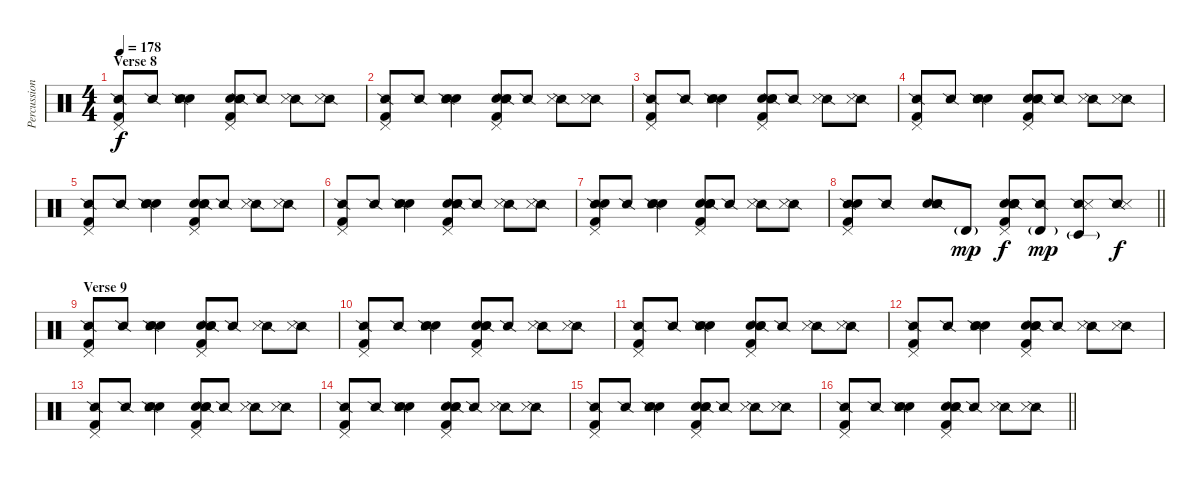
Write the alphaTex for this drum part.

\track ("Percussion" "Percussion") {instrument percussion}
\staff {score}
\articulation defaults
\ts (4 4)
\section ("" "Verse 8")
\tempo 178
\clef neutral
\ks c
("Pedal Hi-Hat (hit)" "Kick (hit) 2" "Snare (side stick) 2").8{dy f} "Snare (side stick) 2".8 ("Hand Clap (hit)" "Hand Clap (hit)" "Snare (side stick) 2" "Metronome (hit)").4 ("Pedal Hi-Hat (hit)" "Hand Clap (hit)" "Hand Clap (hit)" "Kick (hit) 2" "Snare (side stick) 2").8 "Snare (side stick) 2".8 ("Snare (side stick) 2" "Metronome (hit)").8 ("Snare (side stick) 2" "Metronome (hit)").8 |
("Pedal Hi-Hat (hit)" "Kick (hit) 2" "Snare (side stick) 2").8 "Snare (side stick) 2".8 ("Hand Clap (hit)" "Hand Clap (hit)" "Snare (side stick) 2" "Metronome (hit)").4 ("Pedal Hi-Hat (hit)" "Hand Clap (hit)" "Hand Clap (hit)" "Kick (hit) 2" "Snare (side stick) 2").8 "Snare (side stick) 2".8 ("Snare (side stick) 2" "Metronome (hit)").8 ("Snare (side stick) 2" "Metronome (hit)").8 |
("Pedal Hi-Hat (hit)" "Kick (hit) 2" "Snare (side stick) 2").8 "Snare (side stick) 2".8 ("Hand Clap (hit)" "Hand Clap (hit)" "Snare (side stick) 2" "Metronome (hit)").4 ("Pedal Hi-Hat (hit)" "Hand Clap (hit)" "Hand Clap (hit)" "Kick (hit) 2" "Snare (side stick) 2").8 "Snare (side stick) 2".8 ("Snare (side stick) 2" "Metronome (hit)").8 ("Snare (side stick) 2" "Metronome (hit)").8 |
("Pedal Hi-Hat (hit)" "Kick (hit) 2" "Snare (side stick) 2").8 "Snare (side stick) 2".8 ("Hand Clap (hit)" "Hand Clap (hit)" "Snare (side stick) 2" "Metronome (hit)").4 ("Pedal Hi-Hat (hit)" "Hand Clap (hit)" "Hand Clap (hit)" "Kick (hit) 2" "Snare (side stick) 2").8 "Snare (side stick) 2".8 ("Snare (side stick) 2" "Metronome (hit)").8 ("Snare (side stick) 2" "Metronome (hit)").8 |
("Pedal Hi-Hat (hit)" "Kick (hit) 2" "Snare (side stick) 2").8 "Snare (side stick) 2".8 ("Hand Clap (hit)" "Hand Clap (hit)" "Snare (side stick) 2" "Metronome (hit)").4 ("Pedal Hi-Hat (hit)" "Hand Clap (hit)" "Hand Clap (hit)" "Kick (hit) 2" "Snare (side stick) 2").8 "Snare (side stick) 2".8 ("Snare (side stick) 2" "Metronome (hit)").8 ("Snare (side stick) 2" "Metronome (hit)").8 |
("Pedal Hi-Hat (hit)" "Kick (hit) 2" "Snare (side stick) 2").8 "Snare (side stick) 2".8 ("Hand Clap (hit)" "Hand Clap (hit)" "Snare (side stick) 2" "Metronome (hit)").4 ("Pedal Hi-Hat (hit)" "Hand Clap (hit)" "Hand Clap (hit)" "Kick (hit) 2" "Snare (side stick) 2").8 "Snare (side stick) 2".8 ("Snare (side stick) 2" "Metronome (hit)").8 ("Snare (side stick) 2" "Metronome (hit)").8 |
("Pedal Hi-Hat (hit)" "Kick (hit) 2" "Snare (side stick) 2" "Electric Snare (hit)").8 "Snare (side stick) 2".8 ("Hand Clap (hit)" "Hand Clap (hit)" "Snare (side stick) 2" "Metronome (hit)").4 ("Pedal Hi-Hat (hit)" "Hand Clap (hit)" "Hand Clap (hit)" "Kick (hit) 2" "Snare (side stick) 2" "Electric Snare (hit)").8 "Snare (side stick) 2".8 ("Snare (side stick) 2" "Metronome (hit)").8 ("Snare (side stick) 2" "Metronome (hit)").8 |
\barLineRight lightlight
("Pedal Hi-Hat (hit)" "Kick (hit) 2" "Snare (side stick) 2" "Electric Snare (hit)").8 "Snare (side stick) 2".8 ("Hand Clap (hit)" "Hand Clap (hit)" "Snare (side stick) 2" "Metronome (hit)").8 "Timbale high (hit)"{g}.8{dy mp} ("Pedal Hi-Hat (hit)" "Hand Clap (hit)" "Hand Clap (hit)" "Kick (hit) 2" "Snare (side stick) 2" "Electric Snare (hit)").8{dy f} ("Timbale high (hit)"{g} "Snare (side stick) 2").8{dy mp} ("Timbale low (hit)"{g} "Snare (side stick) 2" "Metronome (hit)").8 ("Snare (side stick) 2" "Metronome (hit)").8{dy f} |
\section ("" "Verse 9")
("Pedal Hi-Hat (hit)" "Kick (hit) 2" "Snare (side stick) 2").8 "Snare (side stick) 2".8 ("Hand Clap (hit)" "Hand Clap (hit)" "Snare (side stick) 2" "Metronome (hit)").4 ("Pedal Hi-Hat (hit)" "Hand Clap (hit)" "Hand Clap (hit)" "Kick (hit) 2" "Snare (side stick) 2").8 "Snare (side stick) 2".8 ("Snare (side stick) 2" "Metronome (hit)").8 ("Snare (side stick) 2" "Metronome (hit)").8 |
("Pedal Hi-Hat (hit)" "Kick (hit) 2" "Snare (side stick) 2").8 "Snare (side stick) 2".8 ("Hand Clap (hit)" "Hand Clap (hit)" "Snare (side stick) 2" "Metronome (hit)").4 ("Pedal Hi-Hat (hit)" "Hand Clap (hit)" "Hand Clap (hit)" "Kick (hit) 2" "Snare (side stick) 2").8 "Snare (side stick) 2".8 ("Snare (side stick) 2" "Metronome (hit)").8 ("Snare (side stick) 2" "Metronome (hit)").8 |
("Pedal Hi-Hat (hit)" "Kick (hit) 2" "Snare (side stick) 2").8 "Snare (side stick) 2".8 ("Hand Clap (hit)" "Hand Clap (hit)" "Snare (side stick) 2" "Metronome (hit)").4 ("Pedal Hi-Hat (hit)" "Hand Clap (hit)" "Hand Clap (hit)" "Kick (hit) 2" "Snare (side stick) 2").8 "Snare (side stick) 2".8 ("Snare (side stick) 2" "Metronome (hit)").8 ("Snare (side stick) 2" "Metronome (hit)").8 |
("Pedal Hi-Hat (hit)" "Kick (hit) 2" "Snare (side stick) 2").8 "Snare (side stick) 2".8 ("Hand Clap (hit)" "Hand Clap (hit)" "Snare (side stick) 2" "Metronome (hit)").4 ("Pedal Hi-Hat (hit)" "Hand Clap (hit)" "Hand Clap (hit)" "Kick (hit) 2" "Snare (side stick) 2").8 "Snare (side stick) 2".8 ("Snare (side stick) 2" "Metronome (hit)").8 ("Snare (side stick) 2" "Metronome (hit)").8 |
("Pedal Hi-Hat (hit)" "Kick (hit) 2" "Snare (side stick) 2").8 "Snare (side stick) 2".8 ("Hand Clap (hit)" "Hand Clap (hit)" "Snare (side stick) 2" "Metronome (hit)").4 ("Pedal Hi-Hat (hit)" "Hand Clap (hit)" "Hand Clap (hit)" "Kick (hit) 2" "Snare (side stick) 2").8 "Snare (side stick) 2".8 ("Snare (side stick) 2" "Metronome (hit)").8 ("Snare (side stick) 2" "Metronome (hit)").8 |
("Pedal Hi-Hat (hit)" "Kick (hit) 2" "Snare (side stick) 2").8 "Snare (side stick) 2".8 ("Hand Clap (hit)" "Hand Clap (hit)" "Snare (side stick) 2" "Metronome (hit)").4 ("Pedal Hi-Hat (hit)" "Hand Clap (hit)" "Hand Clap (hit)" "Kick (hit) 2" "Snare (side stick) 2").8 "Snare (side stick) 2".8 ("Snare (side stick) 2" "Metronome (hit)").8 ("Snare (side stick) 2" "Metronome (hit)").8 |
("Pedal Hi-Hat (hit)" "Kick (hit) 2" "Snare (side stick) 2").8 "Snare (side stick) 2".8 ("Hand Clap (hit)" "Hand Clap (hit)" "Snare (side stick) 2" "Metronome (hit)").4 ("Pedal Hi-Hat (hit)" "Hand Clap (hit)" "Hand Clap (hit)" "Kick (hit) 2" "Snare (side stick) 2").8 "Snare (side stick) 2".8 ("Snare (side stick) 2" "Metronome (hit)").8 ("Snare (side stick) 2" "Metronome (hit)").8 |
\barLineRight lightlight
("Pedal Hi-Hat (hit)" "Kick (hit) 2" "Snare (side stick) 2").8 "Snare (side stick) 2".8 ("Hand Clap (hit)" "Hand Clap (hit)" "Snare (side stick) 2" "Metronome (hit)").4 ("Pedal Hi-Hat (hit)" "Hand Clap (hit)" "Hand Clap (hit)" "Kick (hit) 2" "Snare (side stick) 2").8 "Snare (side stick) 2".8 ("Snare (side stick) 2" "Metronome (hit)").8 ("Snare (side stick) 2" "Metronome (hit)").8
